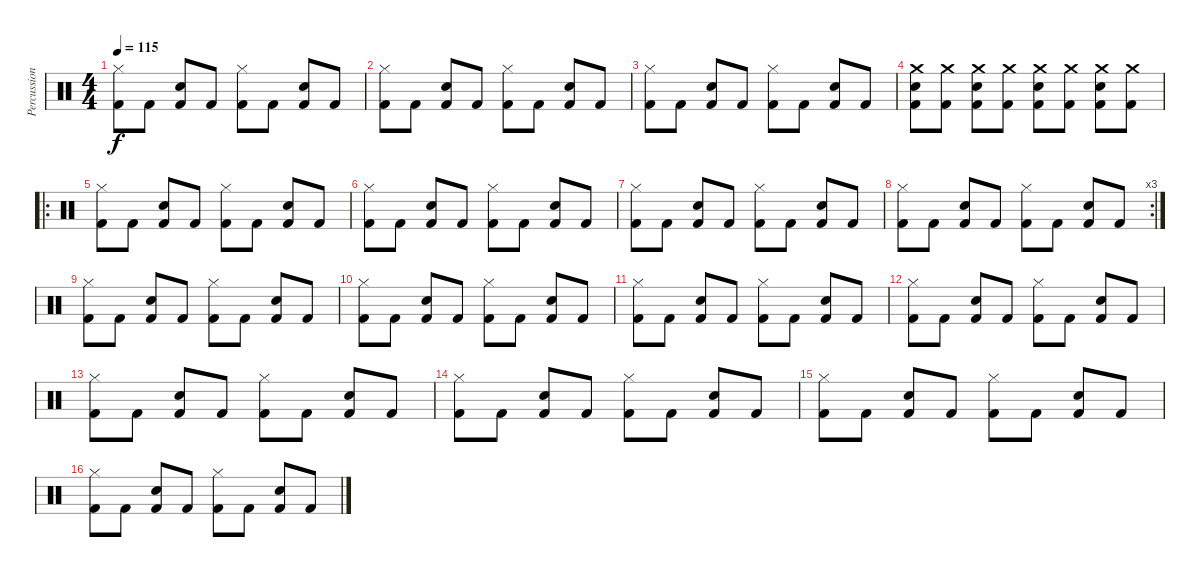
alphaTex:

\track ("Percussion" "Percussion") {instrument percussion}
\staff {score}
\articulation defaults
\ts (4 4)
\tempo 115
\clef neutral
\ks c
("Kick (hit) 2" "Hi-Hat (closed)").8{dy f} "Kick (hit) 2".8 ("Kick (hit) 2" "Snare (hit) 2").8 "Kick (hit) 2".8 ("Kick (hit) 2" "Hi-Hat (closed)").8 "Kick (hit) 2".8 ("Kick (hit) 2" "Snare (hit) 2").8 "Kick (hit) 2".8 |
("Kick (hit) 2" "Hi-Hat (closed)").8 "Kick (hit) 2".8 ("Kick (hit) 2" "Snare (hit) 2").8 "Kick (hit) 2".8 ("Kick (hit) 2" "Hi-Hat (closed)").8 "Kick (hit) 2".8 ("Kick (hit) 2" "Snare (hit) 2").8 "Kick (hit) 2".8 |
("Kick (hit) 2" "Hi-Hat (closed)").8 "Kick (hit) 2".8 ("Kick (hit) 2" "Snare (hit) 2").8 "Kick (hit) 2".8 ("Kick (hit) 2" "Hi-Hat (closed)").8 "Kick (hit) 2".8 ("Kick (hit) 2" "Snare (hit) 2").8 "Kick (hit) 2".8 |
("Kick (hit) 2" "Snare (hit) 2" "Crash medium (hit)").8 ("Kick (hit) 2" "Crash medium (hit)").8 ("Kick (hit) 2" "Snare (hit) 2" "Crash medium (hit)").8 ("Kick (hit) 2" "Crash medium (hit)").8 ("Kick (hit) 2" "Snare (hit) 2" "Crash medium (hit)").8 ("Kick (hit) 2" "Crash medium (hit)").8 ("Kick (hit) 2" "Snare (hit) 2" "Crash medium (hit)").8 ("Kick (hit) 2" "Crash medium (hit)").8 |
\ro
("Kick (hit) 2" "Hi-Hat (closed)").8 "Kick (hit) 2".8 ("Kick (hit) 2" "Snare (hit) 2").8 "Kick (hit) 2".8 ("Kick (hit) 2" "Hi-Hat (closed)").8 "Kick (hit) 2".8 ("Kick (hit) 2" "Snare (hit) 2").8 "Kick (hit) 2".8 |
("Kick (hit) 2" "Hi-Hat (closed)").8 "Kick (hit) 2".8 ("Kick (hit) 2" "Snare (hit) 2").8 "Kick (hit) 2".8 ("Kick (hit) 2" "Hi-Hat (closed)").8 "Kick (hit) 2".8 ("Kick (hit) 2" "Snare (hit) 2").8 "Kick (hit) 2".8 |
("Kick (hit) 2" "Hi-Hat (closed)").8 "Kick (hit) 2".8 ("Kick (hit) 2" "Snare (hit) 2").8 "Kick (hit) 2".8 ("Kick (hit) 2" "Hi-Hat (closed)").8 "Kick (hit) 2".8 ("Kick (hit) 2" "Snare (hit) 2").8 "Kick (hit) 2".8 |
\rc 3
("Kick (hit) 2" "Hi-Hat (closed)").8 "Kick (hit) 2".8 ("Kick (hit) 2" "Snare (hit) 2").8 "Kick (hit) 2".8 ("Kick (hit) 2" "Hi-Hat (closed)").8 "Kick (hit) 2".8 ("Kick (hit) 2" "Snare (hit) 2").8 "Kick (hit) 2".8 |
("Kick (hit) 2" "Hi-Hat (closed)").8 "Kick (hit) 2".8 ("Kick (hit) 2" "Snare (hit) 2").8 "Kick (hit) 2".8 ("Kick (hit) 2" "Hi-Hat (closed)").8 "Kick (hit) 2".8 ("Kick (hit) 2" "Snare (hit) 2").8 "Kick (hit) 2".8 |
("Kick (hit) 2" "Hi-Hat (closed)").8 "Kick (hit) 2".8 ("Kick (hit) 2" "Snare (hit) 2").8 "Kick (hit) 2".8 ("Kick (hit) 2" "Hi-Hat (closed)").8 "Kick (hit) 2".8 ("Kick (hit) 2" "Snare (hit) 2").8 "Kick (hit) 2".8 |
("Kick (hit) 2" "Hi-Hat (closed)").8 "Kick (hit) 2".8 ("Kick (hit) 2" "Snare (hit) 2").8 "Kick (hit) 2".8 ("Kick (hit) 2" "Hi-Hat (closed)").8 "Kick (hit) 2".8 ("Kick (hit) 2" "Snare (hit) 2").8 "Kick (hit) 2".8 |
("Kick (hit) 2" "Hi-Hat (closed)").8 "Kick (hit) 2".8 ("Kick (hit) 2" "Snare (hit) 2").8 "Kick (hit) 2".8 ("Kick (hit) 2" "Hi-Hat (closed)").8 "Kick (hit) 2".8 ("Kick (hit) 2" "Snare (hit) 2").8 "Kick (hit) 2".8 |
("Kick (hit) 2" "Hi-Hat (closed)").8 "Kick (hit) 2".8 ("Kick (hit) 2" "Snare (hit) 2").8 "Kick (hit) 2".8 ("Kick (hit) 2" "Hi-Hat (closed)").8 "Kick (hit) 2".8 ("Kick (hit) 2" "Snare (hit) 2").8 "Kick (hit) 2".8 |
("Kick (hit) 2" "Hi-Hat (closed)").8 "Kick (hit) 2".8 ("Kick (hit) 2" "Snare (hit) 2").8 "Kick (hit) 2".8 ("Kick (hit) 2" "Hi-Hat (closed)").8 "Kick (hit) 2".8 ("Kick (hit) 2" "Snare (hit) 2").8 "Kick (hit) 2".8 |
("Kick (hit) 2" "Hi-Hat (closed)").8 "Kick (hit) 2".8 ("Kick (hit) 2" "Snare (hit) 2").8 "Kick (hit) 2".8 ("Kick (hit) 2" "Hi-Hat (closed)").8 "Kick (hit) 2".8 ("Kick (hit) 2" "Snare (hit) 2").8 "Kick (hit) 2".8 |
("Kick (hit) 2" "Hi-Hat (closed)").8 "Kick (hit) 2".8 ("Kick (hit) 2" "Snare (hit) 2").8 "Kick (hit) 2".8 ("Kick (hit) 2" "Hi-Hat (closed)").8 "Kick (hit) 2".8 ("Kick (hit) 2" "Snare (hit) 2").8 "Kick (hit) 2".8
